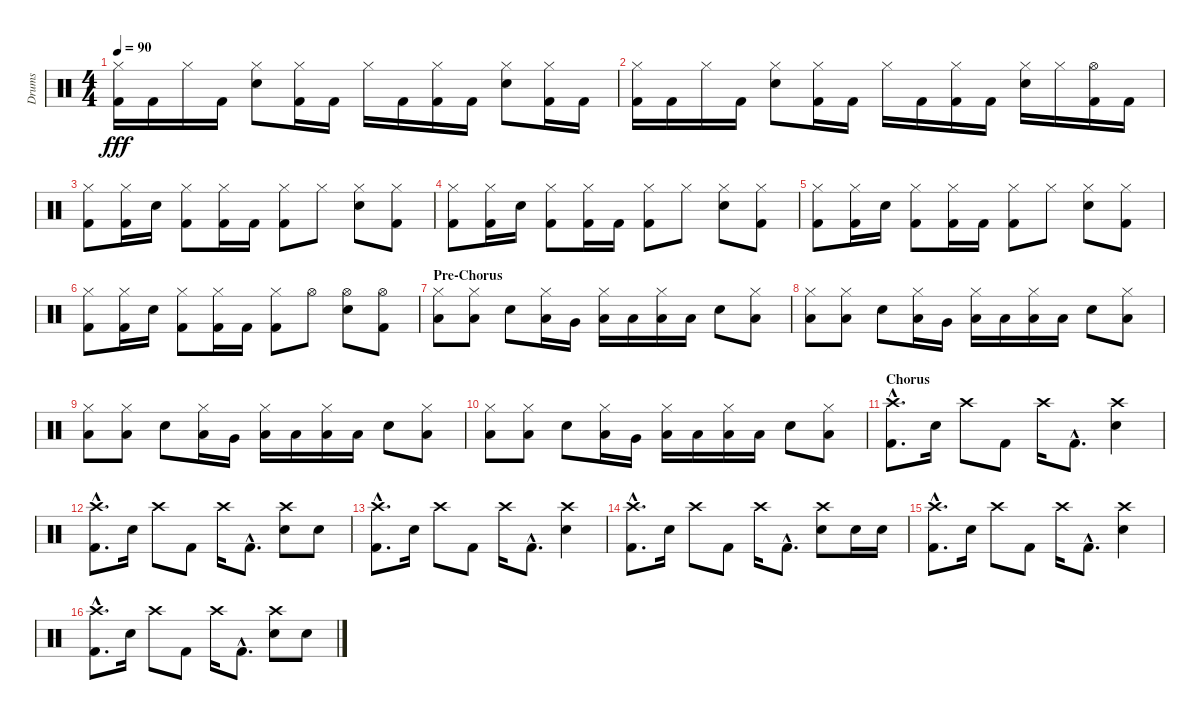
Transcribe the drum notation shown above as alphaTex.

\track ("Drums" "Drums") {instrument percussion}
\staff {score}
\articulation defaults
\ts (4 4)
\tempo 90
\clef neutral
\ks c
("Hi-Hat (closed)" "Kick (hit) 2").16{dy fff} "Kick (hit) 2".16 "Hi-Hat (closed)".16 "Kick (hit) 2".16 ("Hi-Hat (closed)" "Electric Snare (hit)").8 ("Hi-Hat (closed)" "Kick (hit) 2").16 "Kick (hit) 2".16 "Hi-Hat (closed)".16 "Kick (hit) 2".16 ("Hi-Hat (closed)" "Kick (hit) 2").16 "Kick (hit) 2".16 ("Hi-Hat (closed)" "Electric Snare (hit)").8 ("Hi-Hat (closed)" "Kick (hit) 2").16 "Kick (hit) 2".16 |
("Hi-Hat (closed)" "Kick (hit) 2").16 "Kick (hit) 2".16 "Hi-Hat (closed)".16 "Kick (hit) 2".16 ("Hi-Hat (closed)" "Electric Snare (hit)").8 ("Hi-Hat (closed)" "Kick (hit) 2").16 "Kick (hit) 2".16 "Hi-Hat (closed)".16 "Kick (hit) 2".16 ("Hi-Hat (closed)" "Kick (hit) 2").16 "Kick (hit) 2".16 ("Hi-Hat (closed)" "Electric Snare (hit)").16 "Hi-Hat (closed)".16 ("Hi-Hat (open)" "Kick (hit) 2").16 "Kick (hit) 2".16 |
("Hi-Hat (closed)" "Kick (hit) 2").8 ("Hi-Hat (closed)" "Kick (hit) 2").16 "Electric Snare (hit)".16 ("Hi-Hat (closed)" "Kick (hit) 2").8 ("Hi-Hat (closed)" "Kick (hit) 2").16 "Kick (hit) 2".16 ("Hi-Hat (closed)" "Kick (hit) 2").8 "Hi-Hat (closed)".8 ("Hi-Hat (closed)" "Electric Snare (hit)").8 ("Hi-Hat (closed)" "Kick (hit) 2").8 |
("Hi-Hat (closed)" "Kick (hit) 2").8 ("Hi-Hat (closed)" "Kick (hit) 2").16 "Electric Snare (hit)".16 ("Hi-Hat (closed)" "Kick (hit) 2").8 ("Hi-Hat (closed)" "Kick (hit) 2").16 "Kick (hit) 2".16 ("Hi-Hat (closed)" "Kick (hit) 2").8 "Hi-Hat (closed)".8 ("Hi-Hat (closed)" "Electric Snare (hit)").8 ("Hi-Hat (closed)" "Kick (hit) 2").8 |
("Hi-Hat (closed)" "Kick (hit) 2").8 ("Hi-Hat (closed)" "Kick (hit) 2").16 "Electric Snare (hit)".16 ("Hi-Hat (closed)" "Kick (hit) 2").8 ("Hi-Hat (closed)" "Kick (hit) 2").16 "Kick (hit) 2".16 ("Hi-Hat (closed)" "Kick (hit) 2").8 "Hi-Hat (closed)".8 ("Hi-Hat (closed)" "Electric Snare (hit)").8 ("Hi-Hat (closed)" "Kick (hit) 2").8 |
("Hi-Hat (closed)" "Kick (hit) 2").8 ("Hi-Hat (closed)" "Kick (hit) 2").16 "Electric Snare (hit)".16 ("Hi-Hat (closed)" "Kick (hit) 2").8 ("Hi-Hat (closed)" "Kick (hit) 2").16 "Kick (hit) 2".16 ("Hi-Hat (closed)" "Kick (hit) 2").8 "Hi-Hat (open)".8 ("Hi-Hat (open)" "Electric Snare (hit)").8 ("Hi-Hat (open)" "Kick (hit) 2").8 |
\section ("" "Pre-Chorus")
("Low Tom (hit)" "Hi-Hat (closed)").8 ("Low Tom (hit)" "Hi-Hat (closed)").8 "Electric Snare (hit)".8 ("Low Tom (hit)" "Hi-Hat (closed)").16 "Very Low Tom (hit)".16 ("Low Floor Tom (hit)" "Hi-Hat (closed)").16 "Low Floor Tom (hit)".16 ("Low Floor Tom (hit)" "Hi-Hat (closed)").16 "Low Floor Tom (hit)".16 "Electric Snare (hit)".8 ("Low Tom (hit)" "Hi-Hat (closed)").8 |
("Low Tom (hit)" "Hi-Hat (closed)").8 ("Low Tom (hit)" "Hi-Hat (closed)").8 "Electric Snare (hit)".8 ("Low Tom (hit)" "Hi-Hat (closed)").16 "Very Low Tom (hit)".16 ("Low Floor Tom (hit)" "Hi-Hat (closed)").16 "Low Floor Tom (hit)".16 ("Low Floor Tom (hit)" "Hi-Hat (closed)").16 "Low Floor Tom (hit)".16 "Electric Snare (hit)".8 ("Low Tom (hit)" "Hi-Hat (closed)").8 |
("Low Tom (hit)" "Hi-Hat (closed)").8 ("Low Tom (hit)" "Hi-Hat (closed)").8 "Electric Snare (hit)".8 ("Low Tom (hit)" "Hi-Hat (closed)").16 "Very Low Tom (hit)".16 ("Low Floor Tom (hit)" "Hi-Hat (closed)").16 "Low Floor Tom (hit)".16 ("Low Floor Tom (hit)" "Hi-Hat (closed)").16 "Low Floor Tom (hit)".16 "Electric Snare (hit)".8 ("Low Tom (hit)" "Hi-Hat (closed)").8 |
("Low Tom (hit)" "Hi-Hat (closed)").8 ("Low Tom (hit)" "Hi-Hat (closed)").8 "Electric Snare (hit)".8 ("Low Tom (hit)" "Hi-Hat (closed)").16 "Very Low Tom (hit)".16 ("Low Floor Tom (hit)" "Hi-Hat (closed)").16 "Low Floor Tom (hit)".16 ("Low Floor Tom (hit)" "Hi-Hat (closed)").16 "Low Floor Tom (hit)".16 "Electric Snare (hit)".8 ("Low Tom (hit)" "Hi-Hat (closed)").8 |
\section ("" "Chorus")
("Crash high (hit)"{hac} "Kick (hit) 2"{hac}).8{d} "Electric Snare (hit)".16 "Crash high (hit)".8 "Kick (hit) 2".8 "Crash high (hit)".16 "Kick (hit) 2"{hac}.8{d} ("Crash high (hit)" "Electric Snare (hit)").4 |
("Crash high (hit)"{hac} "Kick (hit) 2"{hac}).8{d} "Electric Snare (hit)".16 "Crash high (hit)".8 "Kick (hit) 2".8 "Crash high (hit)".16 "Kick (hit) 2"{hac}.8{d} ("Crash high (hit)" "Electric Snare (hit)").8 "Electric Snare (hit)".8 |
("Crash high (hit)"{hac} "Kick (hit) 2"{hac}).8{d} "Electric Snare (hit)".16 "Crash high (hit)".8 "Kick (hit) 2".8 "Crash high (hit)".16 "Kick (hit) 2"{hac}.8{d} ("Crash high (hit)" "Electric Snare (hit)").4 |
("Crash high (hit)"{hac} "Kick (hit) 2"{hac}).8{d} "Electric Snare (hit)".16 "Crash high (hit)".8 "Kick (hit) 2".8 "Crash high (hit)".16 "Kick (hit) 2"{hac}.8{d} ("Crash high (hit)" "Electric Snare (hit)").8 "Electric Snare (hit)".16 "Electric Snare (hit)".16 |
("Crash high (hit)"{hac} "Kick (hit) 2"{hac}).8{d} "Electric Snare (hit)".16 "Crash high (hit)".8 "Kick (hit) 2".8 "Crash high (hit)".16 "Kick (hit) 2"{hac}.8{d} ("Crash high (hit)" "Electric Snare (hit)").4 |
("Crash high (hit)"{hac} "Kick (hit) 2"{hac}).8{d} "Electric Snare (hit)".16 "Crash high (hit)".8 "Kick (hit) 2".8 "Crash high (hit)".16 "Kick (hit) 2"{hac}.8{d} ("Crash high (hit)" "Electric Snare (hit)").8 "Electric Snare (hit)".8
